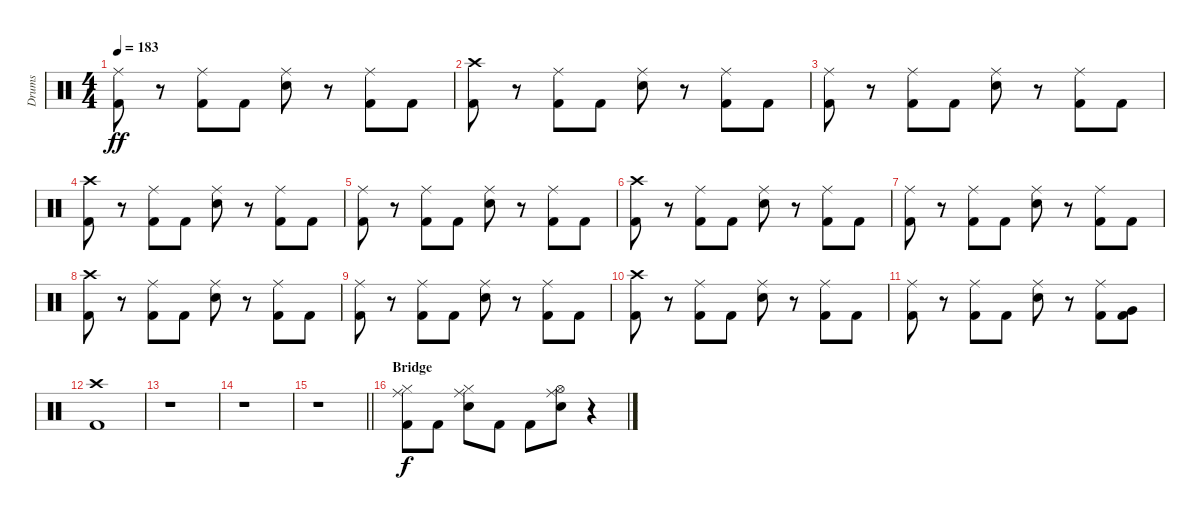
\track ("Drums" "Drums") {instrument percussion}
\staff {score}
\articulation defaults
\ts (4 4)
\tempo 183
\clef neutral
\ks c
("Ride (middle)" "Kick (hit) 2").8{dy ff} r.8 ("Ride (middle)" "Kick (hit) 2").8 "Kick (hit) 2".8 ("Ride (middle)" "Snare (hit) 2").8 r.8 ("Ride (middle)" "Kick (hit) 2").8 "Kick (hit) 2".8 |
("Crash high (hit)" "Kick (hit) 2").8 r.8 ("Ride (middle)" "Kick (hit) 2").8 "Kick (hit) 2".8 ("Ride (middle)" "Snare (hit) 2").8 r.8 ("Ride (middle)" "Kick (hit) 2").8 "Kick (hit) 2".8 |
("Ride (middle)" "Kick (hit) 2").8 r.8 ("Ride (middle)" "Kick (hit) 2").8 "Kick (hit) 2".8 ("Ride (middle)" "Snare (hit) 2").8 r.8 ("Ride (middle)" "Kick (hit) 2").8 "Kick (hit) 2".8 |
("Crash high (hit)" "Kick (hit) 2").8 r.8 ("Ride (middle)" "Kick (hit) 2").8 "Kick (hit) 2".8 ("Ride (middle)" "Snare (hit) 2").8 r.8 ("Ride (middle)" "Kick (hit) 2").8 "Kick (hit) 2".8 |
("Ride (middle)" "Kick (hit) 2").8 r.8 ("Ride (middle)" "Kick (hit) 2").8 "Kick (hit) 2".8 ("Ride (middle)" "Snare (hit) 2").8 r.8 ("Ride (middle)" "Kick (hit) 2").8 "Kick (hit) 2".8 |
("Crash high (hit)" "Kick (hit) 2").8 r.8 ("Ride (middle)" "Kick (hit) 2").8 "Kick (hit) 2".8 ("Ride (middle)" "Snare (hit) 2").8 r.8 ("Ride (middle)" "Kick (hit) 2").8 "Kick (hit) 2".8 |
("Ride (middle)" "Kick (hit) 2").8 r.8 ("Ride (middle)" "Kick (hit) 2").8 "Kick (hit) 2".8 ("Ride (middle)" "Snare (hit) 2").8 r.8 ("Ride (middle)" "Kick (hit) 2").8 "Kick (hit) 2".8 |
("Crash high (hit)" "Kick (hit) 2").8 r.8 ("Ride (middle)" "Kick (hit) 2").8 "Kick (hit) 2".8 ("Ride (middle)" "Snare (hit) 2").8 r.8 ("Ride (middle)" "Kick (hit) 2").8 "Kick (hit) 2".8 |
("Ride (middle)" "Kick (hit) 2").8 r.8 ("Ride (middle)" "Kick (hit) 2").8 "Kick (hit) 2".8 ("Ride (middle)" "Snare (hit) 2").8 r.8 ("Ride (middle)" "Kick (hit) 2").8 "Kick (hit) 2".8 |
("Crash high (hit)" "Kick (hit) 2").8 r.8 ("Ride (middle)" "Kick (hit) 2").8 "Kick (hit) 2".8 ("Ride (middle)" "Snare (hit) 2").8 r.8 ("Ride (middle)" "Kick (hit) 2").8 "Kick (hit) 2".8 |
("Ride (middle)" "Kick (hit) 2").8 r.8 ("Ride (middle)" "Kick (hit) 2").8 "Kick (hit) 2".8 ("Ride (middle)" "Snare (hit) 2").8 r.8 ("Ride (middle)" "Kick (hit) 2").8 ("Very Low Tom (hit)" "Kick (hit) 2").8 |
("Crash high (hit)" "Kick (hit) 2").1 |
r.1 |
r.1 |
\barLineRight lightlight
r.1 |
\section ("" "Bridge")
("Hi-Hat (closed)" "Ride (middle)" "Kick (hit) 2").8{dy f} "Kick (hit) 2".8 ("Hi-Hat (closed)" "Ride (middle)" "Snare (hit) 2").8 "Kick (hit) 2".8 "Kick (hit) 2".8 ("Hi-Hat (open)" "Ride (middle)" "Snare (hit) 2").8{volume 4} r.4
